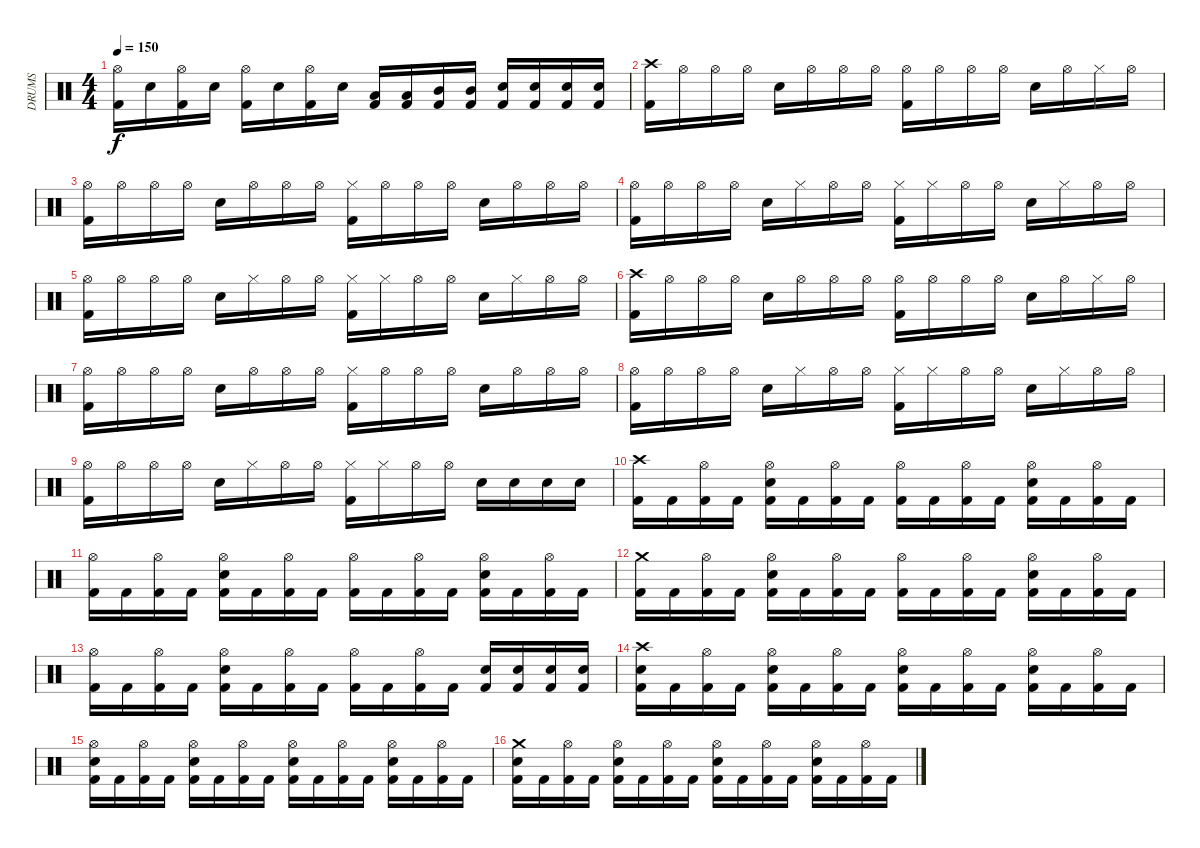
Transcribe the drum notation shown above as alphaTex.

\track ("DRUMS" "DRUMS") {instrument percussion}
\staff {score}
\articulation defaults
\ts (4 4)
\tempo 150
\clef neutral
\ks c
("Kick (hit) 2" "Hi-Hat (open)").16{dy f} "Snare (hit) 2".16 ("Kick (hit) 2" "Hi-Hat (open)").16 "Snare (hit) 2".16 ("Kick (hit) 2" "Hi-Hat (open)").16 "Snare (hit) 2".16 ("Kick (hit) 2" "Hi-Hat (open)").16 "Snare (hit) 2".16 ("Kick (hit) 2" "Low Tom (hit)").16 ("Kick (hit) 2" "Low Tom (hit)").16 ("Kick (hit) 2" "Mid Tom (hit)").16 ("Kick (hit) 2" "Mid Tom (hit)").16 ("Kick (hit) 2" "Snare (hit) 2").16 ("Kick (hit) 2" "Snare (hit) 2").16 ("Kick (hit) 2" "Snare (hit) 2").16 ("Kick (hit) 2" "Snare (hit) 2").16 |
("Kick (hit) 2" "Crash high (hit)").16 "Hi-Hat (open)".16 "Hi-Hat (open)".16 "Hi-Hat (open)".16 "Snare (hit) 2".16 "Hi-Hat (open)".16 "Hi-Hat (open)".16 "Hi-Hat (open)".16 ("Kick (hit) 2" "Hi-Hat (open)").16 "Hi-Hat (open)".16 "Hi-Hat (open)".16 "Hi-Hat (open)".16 "Snare (hit) 2".16 "Hi-Hat (open)".16 "Hi-Hat (closed)".16 "Hi-Hat (open)".16 |
("Kick (hit) 2" "Hi-Hat (open)").16 "Hi-Hat (open)".16 "Hi-Hat (open)".16 "Hi-Hat (open)".16 "Snare (hit) 2".16 "Hi-Hat (open)".16 "Hi-Hat (open)".16 "Hi-Hat (open)".16 ("Kick (hit) 2" "Hi-Hat (closed)").16 "Hi-Hat (open)".16 "Hi-Hat (open)".16 "Hi-Hat (open)".16 "Snare (hit) 2".16 "Hi-Hat (open)".16 "Hi-Hat (open)".16 "Hi-Hat (open)".16 |
("Kick (hit) 2" "Hi-Hat (open)").16 "Hi-Hat (open)".16 "Hi-Hat (open)".16 "Hi-Hat (open)".16 "Snare (hit) 2".16 "Hi-Hat (closed)".16 "Hi-Hat (open)".16 "Hi-Hat (open)".16 ("Kick (hit) 2" "Hi-Hat (closed)").16 "Hi-Hat (closed)".16 "Hi-Hat (open)".16 "Hi-Hat (open)".16 "Snare (hit) 2".16 "Hi-Hat (closed)".16 "Hi-Hat (open)".16 "Hi-Hat (open)".16 |
("Kick (hit) 2" "Hi-Hat (open)").16 "Hi-Hat (open)".16 "Hi-Hat (open)".16 "Hi-Hat (open)".16 "Snare (hit) 2".16 "Hi-Hat (closed)".16 "Hi-Hat (open)".16 "Hi-Hat (open)".16 ("Kick (hit) 2" "Hi-Hat (closed)").16 "Hi-Hat (closed)".16 "Hi-Hat (open)".16 "Hi-Hat (open)".16 "Snare (hit) 2".16 "Hi-Hat (closed)".16 "Hi-Hat (open)".16 "Hi-Hat (open)".16 |
("Kick (hit) 2" "Crash high (hit)").16 "Hi-Hat (open)".16 "Hi-Hat (open)".16 "Hi-Hat (open)".16 "Snare (hit) 2".16 "Hi-Hat (open)".16 "Hi-Hat (open)".16 "Hi-Hat (open)".16 ("Kick (hit) 2" "Hi-Hat (open)").16 "Hi-Hat (open)".16 "Hi-Hat (open)".16 "Hi-Hat (open)".16 "Snare (hit) 2".16 "Hi-Hat (open)".16 "Hi-Hat (closed)".16 "Hi-Hat (open)".16 |
("Kick (hit) 2" "Hi-Hat (open)").16 "Hi-Hat (open)".16 "Hi-Hat (open)".16 "Hi-Hat (open)".16 "Snare (hit) 2".16 "Hi-Hat (open)".16 "Hi-Hat (open)".16 "Hi-Hat (open)".16 ("Kick (hit) 2" "Hi-Hat (closed)").16 "Hi-Hat (open)".16 "Hi-Hat (open)".16 "Hi-Hat (open)".16 "Snare (hit) 2".16 "Hi-Hat (open)".16 "Hi-Hat (open)".16 "Hi-Hat (open)".16 |
("Kick (hit) 2" "Hi-Hat (open)").16 "Hi-Hat (open)".16 "Hi-Hat (open)".16 "Hi-Hat (open)".16 "Snare (hit) 2".16 "Hi-Hat (closed)".16 "Hi-Hat (open)".16 "Hi-Hat (open)".16 ("Kick (hit) 2" "Hi-Hat (closed)").16 "Hi-Hat (closed)".16 "Hi-Hat (open)".16 "Hi-Hat (open)".16 "Snare (hit) 2".16 "Hi-Hat (closed)".16 "Hi-Hat (open)".16 "Hi-Hat (open)".16 |
("Kick (hit) 2" "Hi-Hat (open)").16 "Hi-Hat (open)".16 "Hi-Hat (open)".16 "Hi-Hat (open)".16 "Snare (hit) 2".16 "Hi-Hat (closed)".16 "Hi-Hat (open)".16 "Hi-Hat (open)".16 ("Kick (hit) 2" "Hi-Hat (closed)").16 "Hi-Hat (closed)".16 "Hi-Hat (open)".16 "Hi-Hat (open)".16 "Snare (hit) 2".16 "Snare (hit) 2".16 "Snare (hit) 2".16 "Snare (hit) 2".16 |
("Kick (hit) 2" "Crash high (hit)").16 "Kick (hit) 2".16 ("Kick (hit) 2" "Hi-Hat (open)").16 "Kick (hit) 2".16 ("Kick (hit) 2" "Snare (hit) 2" "Hi-Hat (open)").16 "Kick (hit) 2".16 ("Kick (hit) 2" "Hi-Hat (open)").16 "Kick (hit) 2".16 ("Kick (hit) 2" "Hi-Hat (open)").16 "Kick (hit) 2".16 ("Kick (hit) 2" "Hi-Hat (open)").16 "Kick (hit) 2".16 ("Kick (hit) 2" "Snare (hit) 2" "Hi-Hat (open)").16 "Kick (hit) 2".16 ("Kick (hit) 2" "Hi-Hat (open)").16 "Kick (hit) 2".16 |
("Kick (hit) 2" "Hi-Hat (open)").16 "Kick (hit) 2".16 ("Kick (hit) 2" "Hi-Hat (open)").16 "Kick (hit) 2".16 ("Kick (hit) 2" "Snare (hit) 2" "Hi-Hat (open)").16 "Kick (hit) 2".16 ("Kick (hit) 2" "Hi-Hat (open)").16 "Kick (hit) 2".16 ("Kick (hit) 2" "Hi-Hat (open)").16 "Kick (hit) 2".16 ("Kick (hit) 2" "Hi-Hat (open)").16 "Kick (hit) 2".16 ("Kick (hit) 2" "Snare (hit) 2" "Hi-Hat (open)").16 "Kick (hit) 2".16 ("Kick (hit) 2" "Hi-Hat (open)").16 "Kick (hit) 2".16 |
("Kick (hit) 2" "Crash medium (hit)").16 "Kick (hit) 2".16 ("Kick (hit) 2" "Hi-Hat (open)").16 "Kick (hit) 2".16 ("Kick (hit) 2" "Snare (hit) 2" "Hi-Hat (open)").16 "Kick (hit) 2".16 ("Kick (hit) 2" "Hi-Hat (open)").16 "Kick (hit) 2".16 ("Kick (hit) 2" "Hi-Hat (open)").16 "Kick (hit) 2".16 ("Kick (hit) 2" "Hi-Hat (open)").16 "Kick (hit) 2".16 ("Kick (hit) 2" "Snare (hit) 2" "Hi-Hat (open)").16 "Kick (hit) 2".16 ("Kick (hit) 2" "Hi-Hat (open)").16 "Kick (hit) 2".16 |
("Kick (hit) 2" "Hi-Hat (open)").16 "Kick (hit) 2".16 ("Kick (hit) 2" "Hi-Hat (open)").16 "Kick (hit) 2".16 ("Kick (hit) 2" "Snare (hit) 2" "Hi-Hat (open)").16 "Kick (hit) 2".16 ("Kick (hit) 2" "Hi-Hat (open)").16 "Kick (hit) 2".16 ("Kick (hit) 2" "Hi-Hat (open)").16 "Kick (hit) 2".16 ("Kick (hit) 2" "Hi-Hat (open)").16 "Kick (hit) 2".16 ("Kick (hit) 2" "Snare (hit) 2").16 ("Kick (hit) 2" "Snare (hit) 2").16 ("Kick (hit) 2" "Snare (hit) 2").16 ("Kick (hit) 2" "Snare (hit) 2").16 |
("Kick (hit) 2" "Snare (hit) 2" "Crash high (hit)").16 "Kick (hit) 2".16 ("Kick (hit) 2" "Hi-Hat (open)").16 "Kick (hit) 2".16 ("Kick (hit) 2" "Snare (hit) 2" "Hi-Hat (open)").16 "Kick (hit) 2".16 ("Kick (hit) 2" "Hi-Hat (open)").16 "Kick (hit) 2".16 ("Kick (hit) 2" "Snare (hit) 2" "Hi-Hat (open)").16 "Kick (hit) 2".16 ("Kick (hit) 2" "Hi-Hat (open)").16 "Kick (hit) 2".16 ("Kick (hit) 2" "Snare (hit) 2" "Hi-Hat (open)").16 "Kick (hit) 2".16 ("Kick (hit) 2" "Hi-Hat (open)").16 "Kick (hit) 2".16 |
("Kick (hit) 2" "Snare (hit) 2" "Hi-Hat (open)").16 "Kick (hit) 2".16 ("Kick (hit) 2" "Hi-Hat (open)").16 "Kick (hit) 2".16 ("Kick (hit) 2" "Snare (hit) 2" "Hi-Hat (open)").16 "Kick (hit) 2".16 ("Kick (hit) 2" "Hi-Hat (open)").16 "Kick (hit) 2".16 ("Kick (hit) 2" "Snare (hit) 2" "Hi-Hat (open)").16 "Kick (hit) 2".16 ("Kick (hit) 2" "Hi-Hat (open)").16 "Kick (hit) 2".16 ("Kick (hit) 2" "Snare (hit) 2" "Hi-Hat (open)").16 "Kick (hit) 2".16 ("Kick (hit) 2" "Hi-Hat (open)").16 "Kick (hit) 2".16 |
("Kick (hit) 2" "Snare (hit) 2" "Crash medium (hit)").16 "Kick (hit) 2".16 ("Kick (hit) 2" "Hi-Hat (open)").16 "Kick (hit) 2".16 ("Kick (hit) 2" "Snare (hit) 2" "Hi-Hat (open)").16 "Kick (hit) 2".16 ("Kick (hit) 2" "Hi-Hat (open)").16 "Kick (hit) 2".16 ("Kick (hit) 2" "Snare (hit) 2" "Hi-Hat (open)").16 "Kick (hit) 2".16 ("Kick (hit) 2" "Hi-Hat (open)").16 "Kick (hit) 2".16 ("Kick (hit) 2" "Snare (hit) 2" "Hi-Hat (open)").16 "Kick (hit) 2".16 ("Kick (hit) 2" "Hi-Hat (open)").16 "Kick (hit) 2".16
